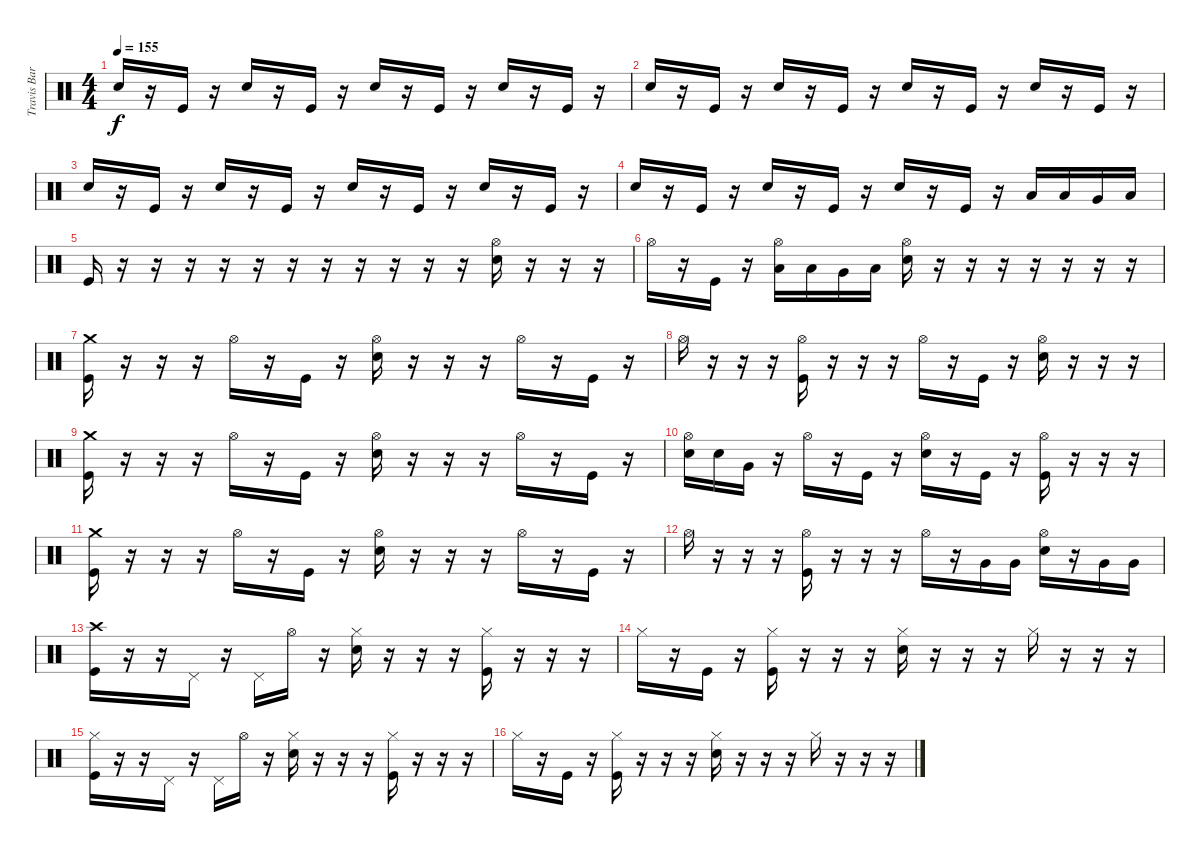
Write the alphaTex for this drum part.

\track ("Travis Barker(drums)" "Travis Bar") {instrument percussion}
\staff {score}
\articulation defaults
\ts (4 4)
\tempo 155
\clef neutral
\ks c "Electric Snare (hit)".16{dy f}
r.16 "Kick (hit)".16 r.16 "Electric Snare (hit)".16 r.16 "Kick (hit)".16 r.16 "Electric Snare (hit)".16 r.16 "Kick (hit)".16 r.16 "Electric Snare (hit)".16 r.16 "Kick (hit)".16 r.16 |
"Electric Snare (hit)".16 r.16 "Kick (hit)".16 r.16 "Electric Snare (hit)".16 r.16 "Kick (hit)".16 r.16 "Electric Snare (hit)".16 r.16 "Kick (hit)".16 r.16 "Electric Snare (hit)".16 r.16 "Kick (hit)".16 r.16 |
"Electric Snare (hit)".16 r.16 "Kick (hit)".16 r.16 "Electric Snare (hit)".16 r.16 "Kick (hit)".16 r.16 "Electric Snare (hit)".16 r.16 "Kick (hit)".16 r.16 "Electric Snare (hit)".16 r.16 "Kick (hit)".16 r.16 |
"Electric Snare (hit)".16 r.16 "Kick (hit)".16 r.16 "Electric Snare (hit)".16 r.16 "Kick (hit)".16 r.16 "Electric Snare (hit)".16 r.16 "Kick (hit)".16 r.16 "Low Tom (hit)".16 "Low Tom (hit)".16 "Very Low Tom (hit)".16 "Low Floor Tom (hit)".16 |
"Kick (hit)".16 r.16 r.16 r.16 r.16 r.16 r.16 r.16 r.16 r.16 r.16 r.16 ("Hi-Hat (open)" "Electric Snare (hit)").16 r.16 r.16 r.16 |
"Hi-Hat (open)".16 r.16 "Kick (hit)".16 r.16 ("Hi-Hat (open)" "Low Tom (hit)").16 "Low Tom (hit)".16 "Very Low Tom (hit)".16 "Low Floor Tom (hit)".16 ("Hi-Hat (open)" "Electric Snare (hit)").16 r.16 r.16 r.16 r.16 r.16 r.16 r.16 |
("Crash medium (hit)" "Kick (hit)").16 r.16 r.16 r.16 "Hi-Hat (open)".16 r.16 "Kick (hit)".16 r.16 ("Hi-Hat (open)" "Electric Snare (hit)").16 r.16 r.16 r.16 "Hi-Hat (open)".16 r.16 "Kick (hit)".16 r.16 |
"Hi-Hat (open)".16 r.16 r.16 r.16 ("Hi-Hat (open)" "Kick (hit)").16 r.16 r.16 r.16 "Hi-Hat (open)".16 r.16 "Kick (hit)".16 r.16 ("Hi-Hat (open)" "Electric Snare (hit)").16 r.16 r.16 r.16 |
("Crash medium (hit)" "Kick (hit)").16 r.16 r.16 r.16 "Hi-Hat (open)".16 r.16 "Kick (hit)".16 r.16 ("Hi-Hat (open)" "Electric Snare (hit)").16 r.16 r.16 r.16 "Hi-Hat (open)".16 r.16 "Kick (hit)".16 r.16 |
("Hi-Hat (open)" "Electric Snare (hit)").16 "Electric Snare (hit)".16 "Very Low Tom (hit)".16 r.16 "Hi-Hat (open)".16 r.16 "Kick (hit)".16 r.16 ("Hi-Hat (open)" "Electric Snare (hit)").16 r.16 "Kick (hit)".16 r.16 ("Hi-Hat (open)" "Kick (hit)").16 r.16 r.16 r.16 |
("Crash medium (hit)" "Kick (hit)").16 r.16 r.16 r.16 "Hi-Hat (open)".16 r.16 "Kick (hit)".16 r.16 ("Hi-Hat (open)" "Electric Snare (hit)").16 r.16 r.16 r.16 "Hi-Hat (open)".16 r.16 "Kick (hit)".16 r.16 |
"Hi-Hat (open)".16 r.16 r.16 r.16 ("Hi-Hat (open)" "Kick (hit)").16 r.16 r.16 r.16 "Hi-Hat (open)".16 r.16 "Very Low Tom (hit)".16 "Very Low Tom (hit)".16 ("Hi-Hat (open)" "Electric Snare (hit)").16 r.16 "Very Low Tom (hit)".16 "Very Low Tom (hit)".16 |
("Crash high (hit)" "Kick (hit)").16 r.16 r.16 "Pedal Hi-Hat (hit)".16 r.16 "Pedal Hi-Hat (hit)".16 "Hi-Hat (open)".16 r.16 ("Hi-Hat (closed)" "Electric Snare (hit)").16 r.16 r.16 r.16 ("Hi-Hat (closed)" "Kick (hit)").16 r.16 r.16 r.16 |
"Hi-Hat (closed)".16 r.16 "Kick (hit)".16 r.16 ("Hi-Hat (closed)" "Kick (hit)").16 r.16 r.16 r.16 ("Hi-Hat (closed)" "Electric Snare (hit)").16 r.16 r.16 r.16 "Hi-Hat (closed)".16 r.16 r.16 r.16 |
("Hi-Hat (closed)" "Kick (hit)").16 r.16 r.16 "Pedal Hi-Hat (hit)".16 r.16 "Pedal Hi-Hat (hit)".16 "Hi-Hat (open)".16 r.16 ("Hi-Hat (closed)" "Electric Snare (hit)").16 r.16 r.16 r.16 ("Hi-Hat (closed)" "Kick (hit)").16 r.16 r.16 r.16 |
"Hi-Hat (closed)".16 r.16 "Kick (hit)".16 r.16 ("Hi-Hat (closed)" "Kick (hit)").16 r.16 r.16 r.16 ("Hi-Hat (closed)" "Electric Snare (hit)").16 r.16 r.16 r.16 "Hi-Hat (closed)".16 r.16 r.16 r.16
